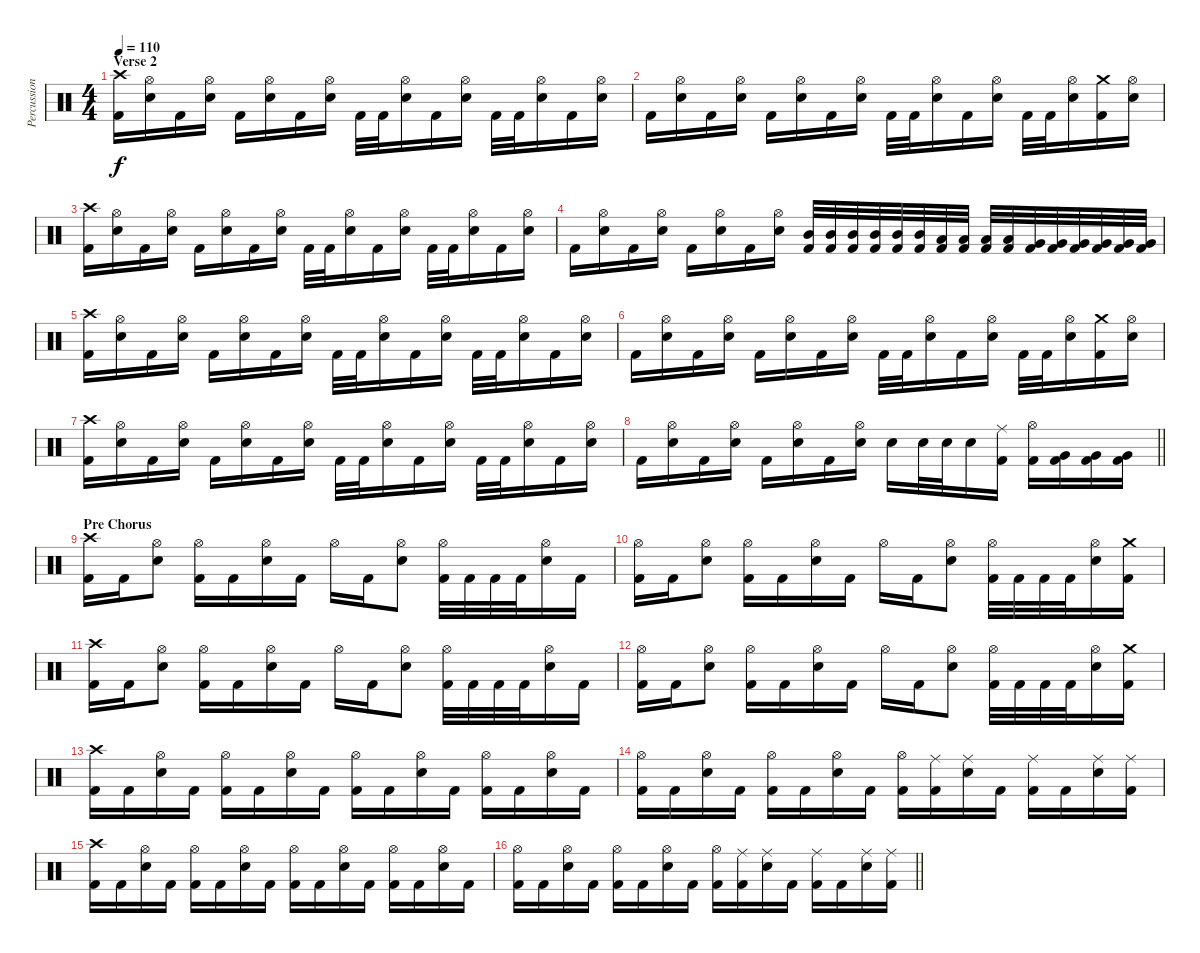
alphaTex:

\track ("Percussion" "Percussion") {instrument percussion}
\staff {score}
\articulation defaults
\ts (4 4)
\section ("" "Verse 2")
\tempo 110
\clef neutral
\ks c
("Kick (hit) 2" "Crash high (hit)").16{dy f} ("Hi-Hat (open)" "Snare (hit) 2").16 "Kick (hit) 2".16 ("Hi-Hat (open)" "Snare (hit) 2").16 "Kick (hit) 2".16 ("Hi-Hat (open)" "Snare (hit) 2").16 "Kick (hit) 2".16 ("Hi-Hat (open)" "Snare (hit) 2").16 "Kick (hit) 2".32 "Kick (hit) 2".32 ("Hi-Hat (open)" "Snare (hit) 2").16 "Kick (hit) 2".16 ("Hi-Hat (open)" "Snare (hit) 2").16 "Kick (hit) 2".32 "Kick (hit) 2".32 ("Hi-Hat (open)" "Snare (hit) 2").16 "Kick (hit) 2".16 ("Hi-Hat (open)" "Snare (hit) 2").16 |
"Kick (hit) 2".16 ("Hi-Hat (open)" "Snare (hit) 2").16 "Kick (hit) 2".16 ("Hi-Hat (open)" "Snare (hit) 2").16 "Kick (hit) 2".16 ("Hi-Hat (open)" "Snare (hit) 2").16 "Kick (hit) 2".16 ("Hi-Hat (open)" "Snare (hit) 2").16 "Kick (hit) 2".32 "Kick (hit) 2".32 ("Hi-Hat (open)" "Snare (hit) 2").16 "Kick (hit) 2".16 ("Hi-Hat (open)" "Snare (hit) 2").16 "Kick (hit) 2".32 "Kick (hit) 2".32 ("Hi-Hat (open)" "Snare (hit) 2").16 ("Kick (hit) 2" "Crash medium (hit)").16 ("Hi-Hat (open)" "Snare (hit) 2").16 |
("Kick (hit) 2" "Crash high (hit)").16 ("Hi-Hat (open)" "Snare (hit) 2").16 "Kick (hit) 2".16 ("Hi-Hat (open)" "Snare (hit) 2").16 "Kick (hit) 2".16 ("Hi-Hat (open)" "Snare (hit) 2").16 "Kick (hit) 2".16 ("Hi-Hat (open)" "Snare (hit) 2").16 "Kick (hit) 2".32 "Kick (hit) 2".32 ("Hi-Hat (open)" "Snare (hit) 2").16 "Kick (hit) 2".16 ("Hi-Hat (open)" "Snare (hit) 2").16 "Kick (hit) 2".32 "Kick (hit) 2".32 ("Hi-Hat (open)" "Snare (hit) 2").16 "Kick (hit) 2".16 ("Hi-Hat (open)" "Snare (hit) 2").16 |
"Kick (hit) 2".16 ("Hi-Hat (open)" "Snare (hit) 2").16 "Kick (hit) 2".16 ("Hi-Hat (open)" "Snare (hit) 2").16 "Kick (hit) 2".16 ("Hi-Hat (open)" "Snare (hit) 2").16 "Kick (hit) 2".16 ("Hi-Hat (open)" "Snare (hit) 2").16 ("Mid Tom (hit)" "Kick (hit) 2").32 ("Mid Tom (hit)" "Kick (hit) 2").32 ("Mid Tom (hit)" "Kick (hit) 2").32 ("Mid Tom (hit)" "Kick (hit) 2").32 ("Mid Tom (hit)" "Kick (hit) 2").32 ("Mid Tom (hit)" "Kick (hit) 2").32 ("Low Tom (hit)" "Kick (hit) 2").32 ("Low Tom (hit)" "Kick (hit) 2").32 ("Low Tom (hit)" "Kick (hit) 2").32 ("Low Tom (hit)" "Kick (hit) 2").32 ("Very Low Tom (hit)" "Kick (hit) 2").32 ("Very Low Tom (hit)" "Kick (hit) 2").32 ("Very Low Tom (hit)" "Kick (hit) 2").32 ("Very Low Tom (hit)" "Kick (hit) 2").32 ("Very Low Tom (hit)" "Kick (hit) 2").32 ("Very Low Tom (hit)" "Kick (hit) 2").32 |
("Kick (hit) 2" "Crash high (hit)").16 ("Hi-Hat (open)" "Snare (hit) 2").16 "Kick (hit) 2".16 ("Hi-Hat (open)" "Snare (hit) 2").16 "Kick (hit) 2".16 ("Hi-Hat (open)" "Snare (hit) 2").16 "Kick (hit) 2".16 ("Hi-Hat (open)" "Snare (hit) 2").16 "Kick (hit) 2".32 "Kick (hit) 2".32 ("Hi-Hat (open)" "Snare (hit) 2").16 "Kick (hit) 2".16 ("Hi-Hat (open)" "Snare (hit) 2").16 "Kick (hit) 2".32 "Kick (hit) 2".32 ("Hi-Hat (open)" "Snare (hit) 2").16 "Kick (hit) 2".16 ("Hi-Hat (open)" "Snare (hit) 2").16 |
"Kick (hit) 2".16 ("Hi-Hat (open)" "Snare (hit) 2").16 "Kick (hit) 2".16 ("Hi-Hat (open)" "Snare (hit) 2").16 "Kick (hit) 2".16 ("Hi-Hat (open)" "Snare (hit) 2").16 "Kick (hit) 2".16 ("Hi-Hat (open)" "Snare (hit) 2").16 "Kick (hit) 2".32 "Kick (hit) 2".32 ("Hi-Hat (open)" "Snare (hit) 2").16 "Kick (hit) 2".16 ("Hi-Hat (open)" "Snare (hit) 2").16 "Kick (hit) 2".32 "Kick (hit) 2".32 ("Hi-Hat (open)" "Snare (hit) 2").16 ("Kick (hit) 2" "Crash medium (hit)").16 ("Hi-Hat (open)" "Snare (hit) 2").16 |
("Kick (hit) 2" "Crash high (hit)").16 ("Hi-Hat (open)" "Snare (hit) 2").16 "Kick (hit) 2".16 ("Hi-Hat (open)" "Snare (hit) 2").16 "Kick (hit) 2".16 ("Hi-Hat (open)" "Snare (hit) 2").16 "Kick (hit) 2".16 ("Hi-Hat (open)" "Snare (hit) 2").16 "Kick (hit) 2".32 "Kick (hit) 2".32 ("Hi-Hat (open)" "Snare (hit) 2").16 "Kick (hit) 2".16 ("Hi-Hat (open)" "Snare (hit) 2").16 "Kick (hit) 2".32 "Kick (hit) 2".32 ("Hi-Hat (open)" "Snare (hit) 2").16 "Kick (hit) 2".16 ("Hi-Hat (open)" "Snare (hit) 2").16 |
\barLineRight lightlight "Kick (hit) 2".16
("Hi-Hat (open)" "Snare (hit) 2").16 "Kick (hit) 2".16 ("Hi-Hat (open)" "Snare (hit) 2").16 "Kick (hit) 2".16 ("Hi-Hat (open)" "Snare (hit) 2").16 "Kick (hit) 2".16 ("Hi-Hat (open)" "Snare (hit) 2").16 "Snare (hit) 2".16 "Snare (hit) 2".32 "Snare (hit) 2".32 "Snare (hit) 2".16 ("Ride (middle)" "Kick (hit) 2").16 ("Hi-Hat (open)" "Kick (hit) 2").16 ("Very Low Tom (hit)" "Kick (hit) 2").16 ("Very Low Tom (hit)" "Kick (hit) 2").16 ("Very Low Tom (hit)" "Kick (hit) 2").16 |
\section ("" "Pre Chorus")
("Kick (hit) 2" "Crash high (hit)").16 "Kick (hit) 2".16 ("Hi-Hat (open)" "Snare (hit) 2").8 ("Hi-Hat (open)" "Kick (hit) 2").16 "Kick (hit) 2".16 ("Hi-Hat (open)" "Snare (hit) 2").16 "Kick (hit) 2".16 "Hi-Hat (open)".16 "Kick (hit) 2".16 ("Hi-Hat (open)" "Snare (hit) 2").8 ("Hi-Hat (open)" "Kick (hit) 2").32 "Kick (hit) 2".32 "Kick (hit) 2".32 "Kick (hit) 2".32 ("Hi-Hat (open)" "Snare (hit) 2").16 "Kick (hit) 2".16 |
("Hi-Hat (open)" "Kick (hit) 2").16 "Kick (hit) 2".16 ("Hi-Hat (open)" "Snare (hit) 2").8 ("Hi-Hat (open)" "Kick (hit) 2").16 "Kick (hit) 2".16 ("Hi-Hat (open)" "Snare (hit) 2").16 "Kick (hit) 2".16 "Hi-Hat (open)".16 "Kick (hit) 2".16 ("Hi-Hat (open)" "Snare (hit) 2").8 ("Hi-Hat (open)" "Kick (hit) 2").32 "Kick (hit) 2".32 "Kick (hit) 2".32 "Kick (hit) 2".32 ("Hi-Hat (open)" "Snare (hit) 2").16 ("Kick (hit) 2" "Crash medium (hit)").16 |
("Kick (hit) 2" "Crash high (hit)").16 "Kick (hit) 2".16 ("Hi-Hat (open)" "Snare (hit) 2").8 ("Hi-Hat (open)" "Kick (hit) 2").16 "Kick (hit) 2".16 ("Hi-Hat (open)" "Snare (hit) 2").16 "Kick (hit) 2".16 "Hi-Hat (open)".16 "Kick (hit) 2".16 ("Hi-Hat (open)" "Snare (hit) 2").8 ("Hi-Hat (open)" "Kick (hit) 2").32 "Kick (hit) 2".32 "Kick (hit) 2".32 "Kick (hit) 2".32 ("Hi-Hat (open)" "Snare (hit) 2").16 "Kick (hit) 2".16 |
("Hi-Hat (open)" "Kick (hit) 2").16 "Kick (hit) 2".16 ("Hi-Hat (open)" "Snare (hit) 2").8 ("Hi-Hat (open)" "Kick (hit) 2").16 "Kick (hit) 2".16 ("Hi-Hat (open)" "Snare (hit) 2").16 "Kick (hit) 2".16 "Hi-Hat (open)".16 "Kick (hit) 2".16 ("Hi-Hat (open)" "Snare (hit) 2").8 ("Hi-Hat (open)" "Kick (hit) 2").32 "Kick (hit) 2".32 "Kick (hit) 2".32 "Kick (hit) 2".32 ("Hi-Hat (open)" "Snare (hit) 2").16 ("Kick (hit) 2" "Crash medium (hit)").16 |
("Kick (hit) 2" "Crash high (hit)").16 "Kick (hit) 2".16 ("Hi-Hat (open)" "Snare (hit) 2").16 "Kick (hit) 2".16 ("Hi-Hat (open)" "Kick (hit) 2").16 "Kick (hit) 2".16 ("Hi-Hat (open)" "Snare (hit) 2").16 "Kick (hit) 2".16 ("Hi-Hat (open)" "Kick (hit) 2").16 "Kick (hit) 2".16 ("Hi-Hat (open)" "Snare (hit) 2").16 "Kick (hit) 2".16 ("Hi-Hat (open)" "Kick (hit) 2").16 "Kick (hit) 2".16 ("Hi-Hat (open)" "Snare (hit) 2").16 "Kick (hit) 2".16 |
("Hi-Hat (open)" "Kick (hit) 2").16 "Kick (hit) 2".16 ("Hi-Hat (open)" "Snare (hit) 2").16 "Kick (hit) 2".16 ("Hi-Hat (open)" "Kick (hit) 2").16 "Kick (hit) 2".16 ("Hi-Hat (open)" "Snare (hit) 2").16 "Kick (hit) 2".16 ("Hi-Hat (open)" "Kick (hit) 2").16 ("Ride (middle)" "Kick (hit) 2").16 ("Ride (middle)" "Snare (hit) 2").16 "Kick (hit) 2".16 ("Ride (middle)" "Kick (hit) 2").16 "Kick (hit) 2".16 ("Ride (middle)" "Snare (hit) 2").16 ("Ride (middle)" "Kick (hit) 2").16 |
("Kick (hit) 2" "Crash high (hit)").16 "Kick (hit) 2".16 ("Hi-Hat (open)" "Snare (hit) 2").16 "Kick (hit) 2".16 ("Hi-Hat (open)" "Kick (hit) 2").16 "Kick (hit) 2".16 ("Hi-Hat (open)" "Snare (hit) 2").16 "Kick (hit) 2".16 ("Hi-Hat (open)" "Kick (hit) 2").16 "Kick (hit) 2".16 ("Hi-Hat (open)" "Snare (hit) 2").16 "Kick (hit) 2".16 ("Hi-Hat (open)" "Kick (hit) 2").16 "Kick (hit) 2".16 ("Hi-Hat (open)" "Snare (hit) 2").16 "Kick (hit) 2".16 |
\barLineRight lightlight
("Hi-Hat (open)" "Kick (hit) 2").16 "Kick (hit) 2".16 ("Hi-Hat (open)" "Snare (hit) 2").16 "Kick (hit) 2".16 ("Hi-Hat (open)" "Kick (hit) 2").16 "Kick (hit) 2".16 ("Hi-Hat (open)" "Snare (hit) 2").16 "Kick (hit) 2".16 ("Hi-Hat (open)" "Kick (hit) 2").16 ("Ride (middle)" "Kick (hit) 2").16 ("Ride (middle)" "Snare (hit) 2").16 "Kick (hit) 2".16 ("Ride (middle)" "Kick (hit) 2").16 "Kick (hit) 2".16 ("Ride (middle)" "Snare (hit) 2").16 ("Ride (middle)" "Kick (hit) 2").16
